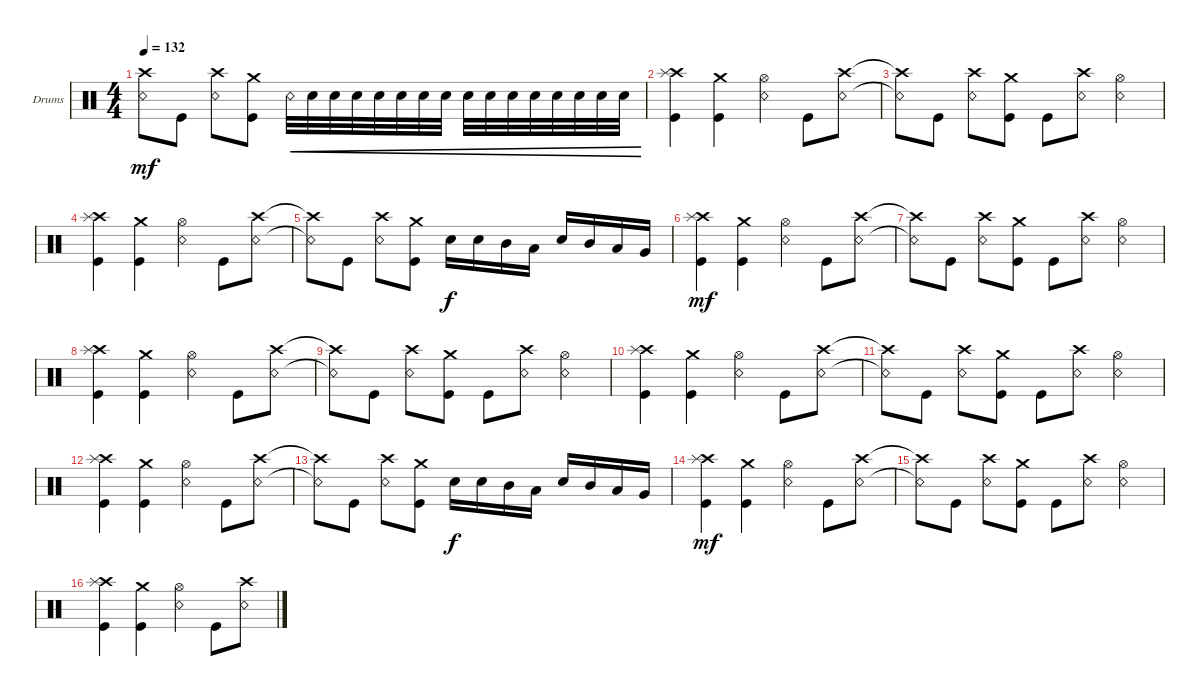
\defaultSystemsLayout 4
\bracketExtendMode groupsimilarinstruments
\firstSystemTrackNameOrientation horizontal
\otherSystemsTrackNameOrientation horizontal
\track ("Drumkit" "Drums") {instrument percussion}
\staff {score}
\articulation defaults
\ts (4 4)
\tempo 132
\clef neutral
\ks c
("Crash high (hit)"{t} "Snare (rim shot)"{t}).8{dy mf} "Kick (hit)".8 ("Crash high (hit)" "Snare (rim shot)").8 ("Kick (hit)" "Crash medium (hit)").8 "Snare (rim shot)".32{cre} "Snare (hit) 2".32{cre} "Snare (hit) 2".32{cre} "Snare (hit) 2".32{cre} "Snare (hit) 2".32{cre} "Snare (hit) 2".32{cre} "Snare (hit) 2".32{cre} "Snare (hit) 2".32{cre} "Snare (hit) 2".32{cre} "Snare (hit) 2".32{cre} "Snare (hit) 2".32{cre} "Snare (hit) 2".32{cre} "Snare (hit) 2".32{cre} "Snare (hit) 2".32{cre} "Snare (hit) 2".32{cre} "Snare (hit) 2".32{cre} |
("Kick (hit)" "Crash high (hit)" "Splash (hit)").4 ("Crash medium (hit)" "Kick (hit)").4 ("Snare (rim shot)" "Hi-Hat (open)").4 "Kick (hit)".8 ("Crash high (hit)" "Snare (rim shot)").8 |
("Crash high (hit)"{t} "Snare (rim shot)"{t}).8 "Kick (hit)".8 ("Crash high (hit)" "Snare (rim shot)").8 ("Kick (hit)" "Crash medium (hit)").8 "Kick (hit)".8 ("Crash high (hit)" "Snare (rim shot)").8 ("Snare (rim shot)" "Hi-Hat (open)").4 |
("Kick (hit)" "Crash high (hit)" "Splash (hit)").4 ("Crash medium (hit)" "Kick (hit)").4 ("Snare (rim shot)" "Hi-Hat (open)").4 "Kick (hit)".8 ("Crash high (hit)" "Snare (rim shot)").8 |
("Crash high (hit)"{t} "Snare (rim shot)"{t}).8 "Kick (hit)".8 ("Crash high (hit)" "Snare (rim shot)").8 ("Kick (hit)" "Crash medium (hit)").8 "Snare (hit) 2".16{dy f} "Snare (hit) 2".16 "Mid Tom (hit)".16 "Low Tom (hit)".16 "Snare (hit) 2".16 "Mid Tom (hit)".16 "Low Tom (hit)".16 "Very Low Tom (hit)".16 |
("Kick (hit)" "Crash high (hit)" "Splash (hit)").4{dy mf} ("Crash medium (hit)" "Kick (hit)").4 ("Snare (rim shot)" "Hi-Hat (open)").4 "Kick (hit)".8 ("Crash high (hit)" "Snare (rim shot)").8 |
("Crash high (hit)"{t} "Snare (rim shot)"{t}).8 "Kick (hit)".8 ("Crash high (hit)" "Snare (rim shot)").8 ("Kick (hit)" "Crash medium (hit)").8 "Kick (hit)".8 ("Crash high (hit)" "Snare (rim shot)").8 ("Snare (rim shot)" "Hi-Hat (open)").4 |
("Kick (hit)" "Crash high (hit)" "Splash (hit)").4 ("Crash medium (hit)" "Kick (hit)").4 ("Snare (rim shot)" "Hi-Hat (open)").4 "Kick (hit)".8 ("Crash high (hit)" "Snare (rim shot)").8 |
("Crash high (hit)"{t} "Snare (rim shot)"{t}).8 "Kick (hit)".8 ("Crash high (hit)" "Snare (rim shot)").8 ("Kick (hit)" "Crash medium (hit)").8 "Kick (hit)".8 ("Crash high (hit)" "Snare (rim shot)").8 ("Snare (rim shot)" "Hi-Hat (open)").4 |
("Kick (hit)" "Crash high (hit)" "Splash (hit)").4 ("Crash medium (hit)" "Kick (hit)").4 ("Snare (rim shot)" "Hi-Hat (open)").4 "Kick (hit)".8 ("Crash high (hit)" "Snare (rim shot)").8 |
("Crash high (hit)"{t} "Snare (rim shot)"{t}).8 "Kick (hit)".8 ("Crash high (hit)" "Snare (rim shot)").8 ("Kick (hit)" "Crash medium (hit)").8 "Kick (hit)".8 ("Crash high (hit)" "Snare (rim shot)").8 ("Snare (rim shot)" "Hi-Hat (open)").4 |
("Kick (hit)" "Crash high (hit)" "Splash (hit)").4 ("Crash medium (hit)" "Kick (hit)").4 ("Snare (rim shot)" "Hi-Hat (open)").4 "Kick (hit)".8 ("Crash high (hit)" "Snare (rim shot)").8 |
("Crash high (hit)"{t} "Snare (rim shot)"{t}).8 "Kick (hit)".8 ("Crash high (hit)" "Snare (rim shot)").8 ("Kick (hit)" "Crash medium (hit)").8 "Snare (hit) 2".16{dy f} "Snare (hit) 2".16 "Mid Tom (hit)".16 "Low Tom (hit)".16 "Snare (hit) 2".16 "Mid Tom (hit)".16 "Low Tom (hit)".16 "Very Low Tom (hit)".16 |
("Kick (hit)" "Crash high (hit)" "Splash (hit)").4{dy mf} ("Crash medium (hit)" "Kick (hit)").4 ("Snare (rim shot)" "Hi-Hat (open)").4 "Kick (hit)".8 ("Crash high (hit)" "Snare (rim shot)").8 |
("Crash high (hit)"{t} "Snare (rim shot)"{t}).8 "Kick (hit)".8 ("Crash high (hit)" "Snare (rim shot)").8 ("Kick (hit)" "Crash medium (hit)").8 "Kick (hit)".8 ("Crash high (hit)" "Snare (rim shot)").8 ("Snare (rim shot)" "Hi-Hat (open)").4 |
("Kick (hit)" "Crash high (hit)" "Splash (hit)").4 ("Crash medium (hit)" "Kick (hit)").4 ("Snare (rim shot)" "Hi-Hat (open)").4 "Kick (hit)".8 ("Crash high (hit)" "Snare (rim shot)").8
